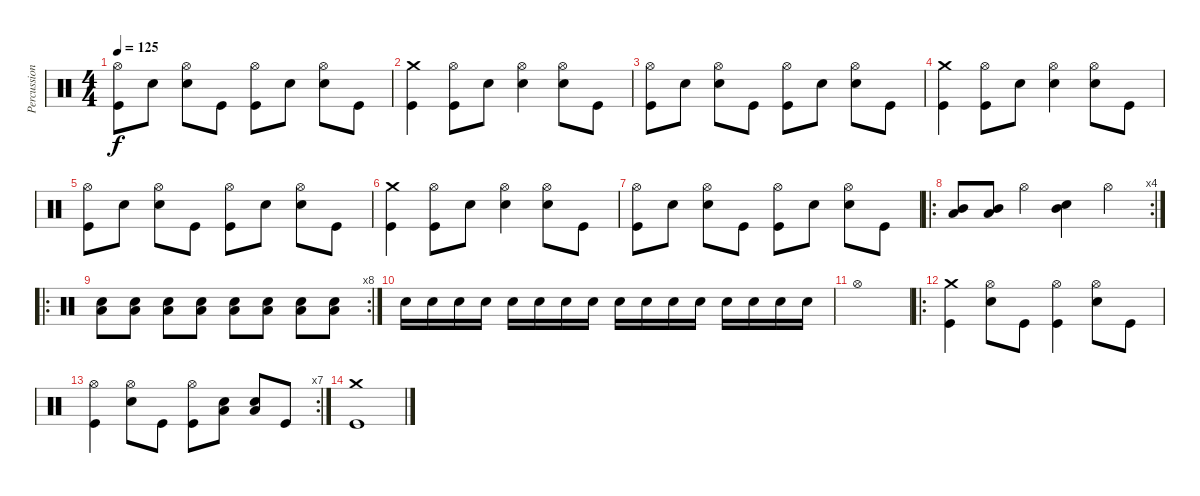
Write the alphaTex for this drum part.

\track ("Percussion" "Percussion") {instrument percussion}
\staff {score}
\articulation defaults
\ts (4 4)
\tempo 125
\clef neutral
\ks c
("Kick (hit)" "Hi-Hat (open)").8{dy f} "Snare (hit) 2".8 ("Snare (hit) 2" "Hi-Hat (open)").8 "Kick (hit)".8 ("Kick (hit)" "Hi-Hat (open)").8 "Snare (hit) 2".8 ("Snare (hit) 2" "Hi-Hat (open)").8 "Kick (hit)".8 |
("Kick (hit)" "Crash medium (hit)").4 ("Kick (hit)" "Hi-Hat (open)").8 "Snare (hit) 2".8 ("Snare (hit) 2" "Hi-Hat (open)").4 ("Snare (hit) 2" "Hi-Hat (open)").8 "Kick (hit)".8 |
("Kick (hit)" "Hi-Hat (open)").8 "Snare (hit) 2".8 ("Snare (hit) 2" "Hi-Hat (open)").8 "Kick (hit)".8 ("Kick (hit)" "Hi-Hat (open)").8 "Snare (hit) 2".8 ("Snare (hit) 2" "Hi-Hat (open)").8 "Kick (hit)".8 |
("Kick (hit)" "Crash medium (hit)").4 ("Kick (hit)" "Hi-Hat (open)").8 "Snare (hit) 2".8 ("Snare (hit) 2" "Hi-Hat (open)").4 ("Snare (hit) 2" "Hi-Hat (open)").8 "Kick (hit)".8 |
("Kick (hit)" "Hi-Hat (open)").8 "Snare (hit) 2".8 ("Snare (hit) 2" "Hi-Hat (open)").8 "Kick (hit)".8 ("Kick (hit)" "Hi-Hat (open)").8 "Snare (hit) 2".8 ("Snare (hit) 2" "Hi-Hat (open)").8 "Kick (hit)".8 |
("Kick (hit)" "Crash medium (hit)").4 ("Kick (hit)" "Hi-Hat (open)").8 "Snare (hit) 2".8 ("Snare (hit) 2" "Hi-Hat (open)").4 ("Snare (hit) 2" "Hi-Hat (open)").8 "Kick (hit)".8 |
("Kick (hit)" "Hi-Hat (open)").8 "Snare (hit) 2".8 ("Snare (hit) 2" "Hi-Hat (open)").8 "Kick (hit)".8 ("Kick (hit)" "Hi-Hat (open)").8 "Snare (hit) 2".8 ("Snare (hit) 2" "Hi-Hat (open)").8 "Kick (hit)".8 |
\ro
\rc 4
("Mid Tom (hit)" "Low Tom (hit)").8 ("Mid Tom (hit)" "Low Tom (hit)").8 "Hi-Hat (open)".4 ("Snare (hit) 2" "Mid Tom (hit)").4 "Hi-Hat (open)".4 |
\ro
\rc 8
("Snare (hit) 2" "Low Tom (hit)").8 ("Snare (hit) 2" "Low Tom (hit)").8 ("Snare (hit) 2" "Low Tom (hit)").8 ("Snare (hit) 2" "Low Tom (hit)").8 ("Snare (hit) 2" "Low Tom (hit)").8 ("Snare (hit) 2" "Low Tom (hit)").8 ("Snare (hit) 2" "Low Tom (hit)").8 ("Snare (hit) 2" "Low Tom (hit)").8 |
"Snare (hit) 2".16 "Snare (hit) 2".16 "Snare (hit) 2".16 "Snare (hit) 2".16 "Snare (hit) 2".16 "Snare (hit) 2".16 "Snare (hit) 2".16 "Snare (hit) 2".16 "Snare (hit) 2".16 "Snare (hit) 2".16 "Snare (hit) 2".16 "Snare (hit) 2".16 "Snare (hit) 2".16 "Snare (hit) 2".16 "Snare (hit) 2".16 "Snare (hit) 2".16 |
"Hi-Hat (open)".1 |
\ro
("Kick (hit)" "Crash medium (hit)").4 ("Snare (hit) 2" "Hi-Hat (open)").8 "Kick (hit)".8 ("Kick (hit)" "Hi-Hat (open)").4 ("Snare (hit) 2" "Hi-Hat (open)").8 "Kick (hit)".8 |
\rc 7
("Kick (hit)" "Hi-Hat (open)").4 ("Snare (hit) 2" "Hi-Hat (open)").8 "Kick (hit)".8 ("Kick (hit)" "Hi-Hat (open)").8 ("Snare (hit) 2" "Low Tom (hit)").8 ("Snare (hit) 2" "Low Tom (hit)").8 "Kick (hit)".8 |
("Crash medium (hit)" "Kick (hit)").1
